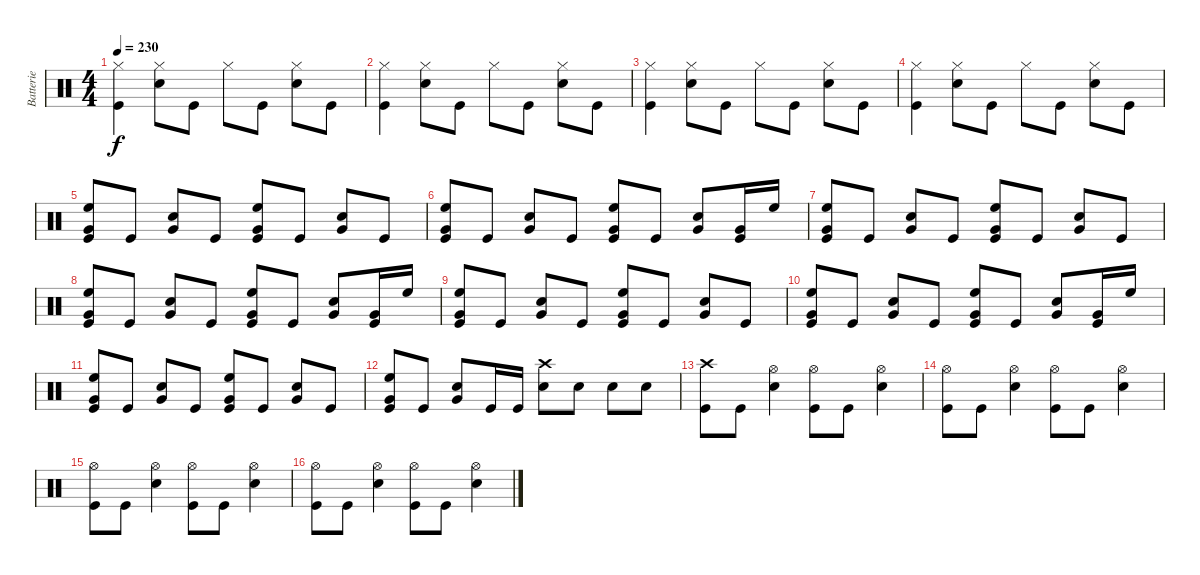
\track ("Batterie" "Batterie") {instrument percussion}
\staff {score}
\articulation defaults
\ts (4 4)
\tempo 230
\clef neutral
\ks c
("Hi-Hat (closed)" "Kick (hit)").4{dy f} ("Hi-Hat (closed)" "Snare (hit) 2").8 "Kick (hit)".8 "Hi-Hat (closed)".8 "Kick (hit)".8 ("Hi-Hat (closed)" "Snare (hit) 2").8 "Kick (hit)".8 |
("Hi-Hat (closed)" "Kick (hit)").4 ("Hi-Hat (closed)" "Snare (hit) 2").8 "Kick (hit)".8 "Hi-Hat (closed)".8 "Kick (hit)".8 ("Hi-Hat (closed)" "Snare (hit) 2").8 "Kick (hit)".8 |
("Hi-Hat (closed)" "Kick (hit)").4 ("Hi-Hat (closed)" "Snare (hit) 2").8 "Kick (hit)".8 "Hi-Hat (closed)".8 "Kick (hit)".8 ("Hi-Hat (closed)" "Snare (hit) 2").8 "Kick (hit)".8 |
("Hi-Hat (closed)" "Kick (hit)").4 ("Hi-Hat (closed)" "Snare (hit) 2").8 "Kick (hit)".8 "Hi-Hat (closed)".8 "Kick (hit)".8 ("Hi-Hat (closed)" "Snare (hit) 2").8 "Kick (hit)".8 |
("Very Low Tom (hit)" "High Floor Tom (hit)" "Kick (hit)").8 "Kick (hit)".8 ("Very Low Tom (hit)" "Snare (hit) 2").8 "Kick (hit)".8 ("Very Low Tom (hit)" "High Floor Tom (hit)" "Kick (hit)").8 "Kick (hit)".8 ("Very Low Tom (hit)" "Snare (hit) 2").8 "Kick (hit)".8 |
("Very Low Tom (hit)" "High Floor Tom (hit)" "Kick (hit)").8 "Kick (hit)".8 ("Very Low Tom (hit)" "Snare (hit) 2").8 "Kick (hit)".8 ("Very Low Tom (hit)" "High Floor Tom (hit)" "Kick (hit)").8 "Kick (hit)".8 ("Very Low Tom (hit)" "Snare (hit) 2").8 ("Very Low Tom (hit)" "Kick (hit)").16 "High Floor Tom (hit)".16 |
("Very Low Tom (hit)" "High Floor Tom (hit)" "Kick (hit)").8 "Kick (hit)".8 ("Very Low Tom (hit)" "Snare (hit) 2").8 "Kick (hit)".8 ("Very Low Tom (hit)" "High Floor Tom (hit)" "Kick (hit)").8 "Kick (hit)".8 ("Very Low Tom (hit)" "Snare (hit) 2").8 "Kick (hit)".8 |
("Very Low Tom (hit)" "High Floor Tom (hit)" "Kick (hit)").8 "Kick (hit)".8 ("Very Low Tom (hit)" "Snare (hit) 2").8 "Kick (hit)".8 ("Very Low Tom (hit)" "High Floor Tom (hit)" "Kick (hit)").8 "Kick (hit)".8 ("Very Low Tom (hit)" "Snare (hit) 2").8 ("Very Low Tom (hit)" "Kick (hit)").16 "High Floor Tom (hit)".16 |
("Very Low Tom (hit)" "High Floor Tom (hit)" "Kick (hit)").8 "Kick (hit)".8 ("Very Low Tom (hit)" "Snare (hit) 2").8 "Kick (hit)".8 ("Very Low Tom (hit)" "High Floor Tom (hit)" "Kick (hit)").8 "Kick (hit)".8 ("Very Low Tom (hit)" "Snare (hit) 2").8 "Kick (hit)".8 |
("Very Low Tom (hit)" "High Floor Tom (hit)" "Kick (hit)").8 "Kick (hit)".8 ("Very Low Tom (hit)" "Snare (hit) 2").8 "Kick (hit)".8 ("Very Low Tom (hit)" "High Floor Tom (hit)" "Kick (hit)").8 "Kick (hit)".8 ("Very Low Tom (hit)" "Snare (hit) 2").8 ("Very Low Tom (hit)" "Kick (hit)").16 "High Floor Tom (hit)".16 |
("Very Low Tom (hit)" "High Floor Tom (hit)" "Kick (hit)").8 "Kick (hit)".8 ("Very Low Tom (hit)" "Snare (hit) 2").8 "Kick (hit)".8 ("Very Low Tom (hit)" "High Floor Tom (hit)" "Kick (hit)").8 "Kick (hit)".8 ("Very Low Tom (hit)" "Snare (hit) 2").8 "Kick (hit)".8 |
("Very Low Tom (hit)" "High Floor Tom (hit)" "Kick (hit)").8 "Kick (hit)".8 ("Very Low Tom (hit)" "Snare (hit) 2").8 "Kick (hit)".16 "Kick (hit)".16 ("Crash high (hit)" "Snare (hit) 2").8 "Snare (hit) 2".8 "Snare (hit) 2".8 "Snare (hit) 2".8 |
("Crash high (hit)" "Kick (hit)").8 "Kick (hit)".8 ("Hi-Hat (open)" "Snare (hit) 2").4 ("Hi-Hat (open)" "Kick (hit)").8 "Kick (hit)".8 ("Hi-Hat (open)" "Snare (hit) 2").4 |
("Hi-Hat (open)" "Kick (hit)").8 "Kick (hit)".8 ("Hi-Hat (open)" "Snare (hit) 2").4 ("Hi-Hat (open)" "Kick (hit)").8 "Kick (hit)".8 ("Hi-Hat (open)" "Snare (hit) 2").4 |
("Hi-Hat (open)" "Kick (hit)").8 "Kick (hit)".8 ("Hi-Hat (open)" "Snare (hit) 2").4 ("Hi-Hat (open)" "Kick (hit)").8 "Kick (hit)".8 ("Hi-Hat (open)" "Snare (hit) 2").4 |
("Hi-Hat (open)" "Kick (hit)").8 "Kick (hit)".8 ("Hi-Hat (open)" "Snare (hit) 2").4 ("Hi-Hat (open)" "Kick (hit)").8 "Kick (hit)".8 ("Hi-Hat (open)" "Snare (hit) 2").4
